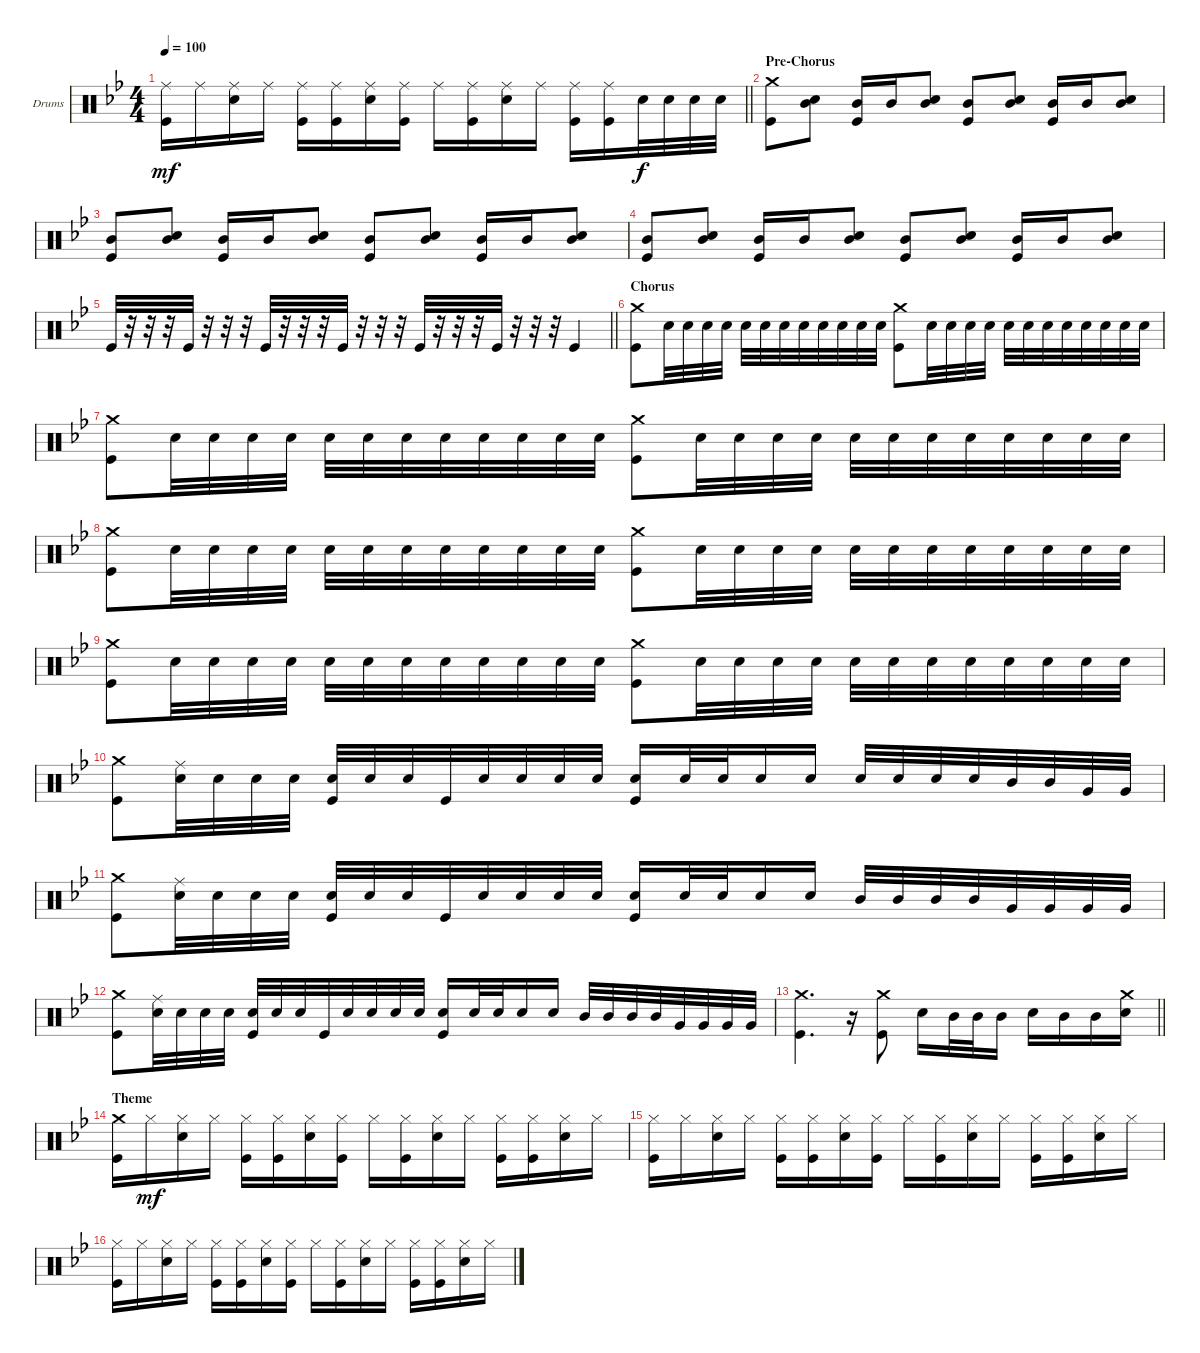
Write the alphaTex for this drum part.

\bracketExtendMode groupsimilarinstruments
\firstSystemTrackNameOrientation horizontal
\otherSystemsTrackNameOrientation horizontal
\track ("Drumkit" "Drums") {instrument percussion}
\staff {score}
\articulation defaults
\ts (4 4)
\tempo 100
\clef neutral
\barLineRight lightlight
\ks gminor
("Ride (middle)" "Kick (hit)").16{dy mf} "Ride (middle)".16 ("Ride (middle)" "Snare (hit) 2").16 "Ride (middle)".16 ("Ride (middle)" "Kick (hit)").16 ("Ride (middle)" "Kick (hit)").16 ("Ride (middle)" "Snare (hit) 2").16 ("Ride (middle)" "Kick (hit)").16 "Ride (middle)".16 ("Ride (middle)" "Kick (hit)").16 ("Ride (middle)" "Snare (hit) 2").16 "Ride (middle)".16 ("Ride (middle)" "Kick (hit)").16 ("Ride (middle)" "Kick (hit)").16 "Snare (hit) 2".32{dy f} "Snare (hit) 2".32 "Snare (hit) 2".32 "Snare (hit) 2".32 |
\section ("" "Pre-Chorus")
("Crash medium (hit)" "Kick (hit)").8 ("Mid Tom (hit)" "Snare (hit) 2").8 ("Mid Tom (hit)" "Kick (hit)").16 "Mid Tom (hit)".16 ("Mid Tom (hit)" "Snare (hit) 2").8 ("Mid Tom (hit)" "Kick (hit)").8 ("Mid Tom (hit)" "Snare (hit) 2").8 ("Mid Tom (hit)" "Kick (hit)").16 "Mid Tom (hit)".16 ("Mid Tom (hit)" "Snare (hit) 2").8 |
("Mid Tom (hit)" "Kick (hit)").8 ("Mid Tom (hit)" "Snare (hit) 2").8 ("Mid Tom (hit)" "Kick (hit)").16 "Mid Tom (hit)".16 ("Mid Tom (hit)" "Snare (hit) 2").8 ("Mid Tom (hit)" "Kick (hit)").8 ("Mid Tom (hit)" "Snare (hit) 2").8 ("Mid Tom (hit)" "Kick (hit)").16 "Mid Tom (hit)".16 ("Mid Tom (hit)" "Snare (hit) 2").8 |
("Mid Tom (hit)" "Kick (hit)").8 ("Mid Tom (hit)" "Snare (hit) 2").8 ("Mid Tom (hit)" "Kick (hit)").16 "Mid Tom (hit)".16 ("Mid Tom (hit)" "Snare (hit) 2").8 ("Mid Tom (hit)" "Kick (hit)").8 ("Mid Tom (hit)" "Snare (hit) 2").8 ("Mid Tom (hit)" "Kick (hit)").16 "Mid Tom (hit)".16 ("Mid Tom (hit)" "Snare (hit) 2").8 |
\barLineRight lightlight "Kick (hit)".32
r.32 r.32 r.32 "Kick (hit)".32 r.32 r.32 r.32 "Kick (hit)".32 r.32 r.32 r.32 "Kick (hit)".32 r.32 r.32 r.32 "Kick (hit)".32 r.32 r.32 r.32 "Kick (hit)".32 r.32 r.32 r.32 "Kick (hit)".4 |
\section ("" "Chorus")
("Crash medium (hit)" "Kick (hit)").8 "Snare (hit) 2".32 "Snare (hit) 2".32 "Snare (hit) 2".32 "Snare (hit) 2".32 "Snare (hit) 2".32 "Snare (hit) 2".32 "Snare (hit) 2".32 "Snare (hit) 2".32 "Snare (hit) 2".32 "Snare (hit) 2".32 "Snare (hit) 2".32 "Snare (hit) 2".32 ("Crash medium (hit)" "Kick (hit)").8 "Snare (hit) 2".32 "Snare (hit) 2".32 "Snare (hit) 2".32 "Snare (hit) 2".32 "Snare (hit) 2".32 "Snare (hit) 2".32 "Snare (hit) 2".32 "Snare (hit) 2".32 "Snare (hit) 2".32 "Snare (hit) 2".32 "Snare (hit) 2".32 "Snare (hit) 2".32 |
("Crash medium (hit)" "Kick (hit)").8 "Snare (hit) 2".32 "Snare (hit) 2".32 "Snare (hit) 2".32 "Snare (hit) 2".32 "Snare (hit) 2".32 "Snare (hit) 2".32 "Snare (hit) 2".32 "Snare (hit) 2".32 "Snare (hit) 2".32 "Snare (hit) 2".32 "Snare (hit) 2".32 "Snare (hit) 2".32 ("Crash medium (hit)" "Kick (hit)").8 "Snare (hit) 2".32 "Snare (hit) 2".32 "Snare (hit) 2".32 "Snare (hit) 2".32 "Snare (hit) 2".32 "Snare (hit) 2".32 "Snare (hit) 2".32 "Snare (hit) 2".32 "Snare (hit) 2".32 "Snare (hit) 2".32 "Snare (hit) 2".32 "Snare (hit) 2".32 |
("Crash medium (hit)" "Kick (hit)").8 "Snare (hit) 2".32 "Snare (hit) 2".32 "Snare (hit) 2".32 "Snare (hit) 2".32 "Snare (hit) 2".32 "Snare (hit) 2".32 "Snare (hit) 2".32 "Snare (hit) 2".32 "Snare (hit) 2".32 "Snare (hit) 2".32 "Snare (hit) 2".32 "Snare (hit) 2".32 ("Crash medium (hit)" "Kick (hit)").8 "Snare (hit) 2".32 "Snare (hit) 2".32 "Snare (hit) 2".32 "Snare (hit) 2".32 "Snare (hit) 2".32 "Snare (hit) 2".32 "Snare (hit) 2".32 "Snare (hit) 2".32 "Snare (hit) 2".32 "Snare (hit) 2".32 "Snare (hit) 2".32 "Snare (hit) 2".32 |
("Crash medium (hit)" "Kick (hit)").8 "Snare (hit) 2".32 "Snare (hit) 2".32 "Snare (hit) 2".32 "Snare (hit) 2".32 "Snare (hit) 2".32 "Snare (hit) 2".32 "Snare (hit) 2".32 "Snare (hit) 2".32 "Snare (hit) 2".32 "Snare (hit) 2".32 "Snare (hit) 2".32 "Snare (hit) 2".32 ("Crash medium (hit)" "Kick (hit)").8 "Snare (hit) 2".32 "Snare (hit) 2".32 "Snare (hit) 2".32 "Snare (hit) 2".32 "Snare (hit) 2".32 "Snare (hit) 2".32 "Snare (hit) 2".32 "Snare (hit) 2".32 "Snare (hit) 2".32 "Snare (hit) 2".32 "Snare (hit) 2".32 "Snare (hit) 2".32 |
("Crash medium (hit)" "Kick (hit)").8 ("Ride (middle)" "Snare (hit) 2").32 "Snare (hit) 2".32 "Snare (hit) 2".32 "Snare (hit) 2".32 ("Snare (hit) 2" "Kick (hit)").32 "Snare (hit) 2".32 "Snare (hit) 2".32 "Kick (hit)".32 "Snare (hit) 2".32 "Snare (hit) 2".32 "Snare (hit) 2".32 "Snare (hit) 2".32 ("Snare (hit) 2" "Kick (hit)").16 "Snare (hit) 2".32 "Snare (hit) 2".32 "Snare (hit) 2".16 "Snare (hit) 2".16 "Snare (hit) 2".32 "Snare (hit) 2".32 "Snare (hit) 2".32 "Snare (hit) 2".32 "Mid Tom (hit)".32 "Mid Tom (hit)".32 "Very Low Tom (hit)".32 "Very Low Tom (hit)".32 |
("Crash medium (hit)" "Kick (hit)").8 ("Ride (middle)" "Snare (hit) 2").32 "Snare (hit) 2".32 "Snare (hit) 2".32 "Snare (hit) 2".32 ("Snare (hit) 2" "Kick (hit)").32 "Snare (hit) 2".32 "Snare (hit) 2".32 "Kick (hit)".32 "Snare (hit) 2".32 "Snare (hit) 2".32 "Snare (hit) 2".32 "Snare (hit) 2".32 ("Snare (hit) 2" "Kick (hit)").16 "Snare (hit) 2".32 "Snare (hit) 2".32 "Snare (hit) 2".16 "Snare (hit) 2".16 "Mid Tom (hit)".32 "Mid Tom (hit)".32 "Mid Tom (hit)".32 "Mid Tom (hit)".32 "Very Low Tom (hit)".32 "Very Low Tom (hit)".32 "Very Low Tom (hit)".32 "Very Low Tom (hit)".32 |
("Crash medium (hit)" "Kick (hit)").8 ("Ride (middle)" "Snare (hit) 2").32 "Snare (hit) 2".32 "Snare (hit) 2".32 "Snare (hit) 2".32 ("Snare (hit) 2" "Kick (hit)").32 "Snare (hit) 2".32 "Snare (hit) 2".32 "Kick (hit)".32 "Snare (hit) 2".32 "Snare (hit) 2".32 "Snare (hit) 2".32 "Snare (hit) 2".32 ("Snare (hit) 2" "Kick (hit)").16 "Snare (hit) 2".32 "Snare (hit) 2".32 "Snare (hit) 2".16 "Snare (hit) 2".16 "Mid Tom (hit)".32 "Mid Tom (hit)".32 "Mid Tom (hit)".32 "Mid Tom (hit)".32 "Very Low Tom (hit)".32 "Very Low Tom (hit)".32 "Very Low Tom (hit)".32 "Very Low Tom (hit)".32 |
\barLineRight lightlight
("Crash medium (hit)" "Kick (hit)").4{d} r.16 ("Crash medium (hit)" "Kick (hit)").8 "Snare (hit) 2".16 "Mid Tom (hit)".32 "Mid Tom (hit)".32 "Mid Tom (hit)".16 "Snare (hit) 2".16 "Mid Tom (hit)".16 "Mid Tom (hit)".16 ("Crash medium (hit)" "Snare (hit) 2").16 |
\section ("" "Theme")
("Crash medium (hit)" "Kick (hit)").16 "Hi-Hat (closed)".16{dy mf} ("Hi-Hat (closed)" "Snare (hit) 2").16 "Hi-Hat (closed)".16 ("Hi-Hat (closed)" "Kick (hit)").16 ("Hi-Hat (closed)" "Kick (hit)").16 ("Hi-Hat (closed)" "Snare (hit) 2").16 ("Hi-Hat (closed)" "Kick (hit)").16 "Hi-Hat (closed)".16 ("Hi-Hat (closed)" "Kick (hit)").16 ("Hi-Hat (closed)" "Snare (hit) 2").16 "Hi-Hat (closed)".16 ("Hi-Hat (closed)" "Kick (hit)").16 ("Hi-Hat (closed)" "Kick (hit)").16 ("Hi-Hat (closed)" "Snare (hit) 2").16 "Hi-Hat (closed)".16 |
("Hi-Hat (closed)" "Kick (hit)").16 "Hi-Hat (closed)".16 ("Hi-Hat (closed)" "Snare (hit) 2").16 "Hi-Hat (closed)".16 ("Hi-Hat (closed)" "Kick (hit)").16 ("Hi-Hat (closed)" "Kick (hit)").16 ("Hi-Hat (closed)" "Snare (hit) 2").16 ("Hi-Hat (closed)" "Kick (hit)").16 "Hi-Hat (closed)".16 ("Hi-Hat (closed)" "Kick (hit)").16 ("Hi-Hat (closed)" "Snare (hit) 2").16 "Hi-Hat (closed)".16 ("Hi-Hat (closed)" "Kick (hit)").16 ("Hi-Hat (closed)" "Kick (hit)").16 ("Hi-Hat (closed)" "Snare (hit) 2").16 "Hi-Hat (closed)".16 |
("Hi-Hat (closed)" "Kick (hit)").16 "Hi-Hat (closed)".16 ("Hi-Hat (closed)" "Snare (hit) 2").16 "Hi-Hat (closed)".16 ("Hi-Hat (closed)" "Kick (hit)").16 ("Hi-Hat (closed)" "Kick (hit)").16 ("Hi-Hat (closed)" "Snare (hit) 2").16 ("Hi-Hat (closed)" "Kick (hit)").16 "Hi-Hat (closed)".16 ("Hi-Hat (closed)" "Kick (hit)").16 ("Hi-Hat (closed)" "Snare (hit) 2").16 "Hi-Hat (closed)".16 ("Hi-Hat (closed)" "Kick (hit)").16 ("Hi-Hat (closed)" "Kick (hit)").16 ("Hi-Hat (closed)" "Snare (hit) 2").16 "Hi-Hat (closed)".16
